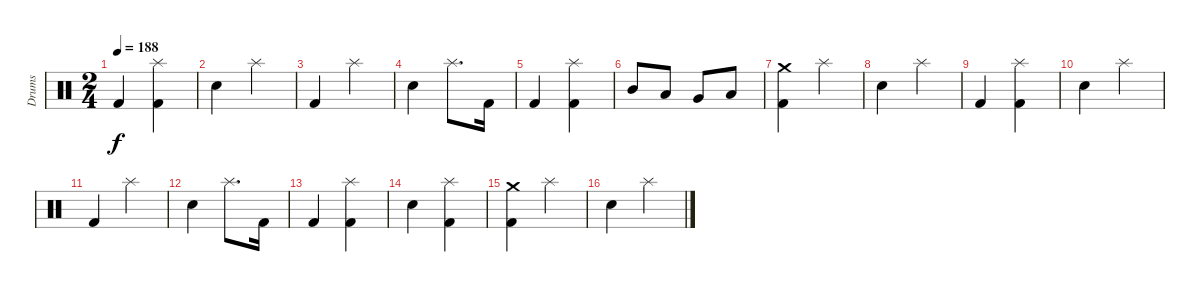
\track ("Drums" "Drums") {instrument percussion}
\staff {score}
\articulation defaults
\ts (2 4)
\tempo 188
\clef neutral
\ks c "Kick (hit) 2".4{dy f}
("Splash (hit)" "Kick (hit) 2").4 |
"Electric Snare (hit)".4 "Splash (hit)".4 |
"Kick (hit) 2".4 "Splash (hit)".4 |
"Electric Snare (hit)".4 "Splash (hit)".8{d} "Kick (hit) 2".16 |
"Kick (hit) 2".4 ("Splash (hit)" "Kick (hit) 2").4 |
"Mid Tom (hit)".8 "Low Tom (hit)".8 "Very Low Tom (hit)".8 "Low Floor Tom (hit)".8 |
("Crash medium (hit)" "Kick (hit) 2").4 "Splash (hit)".4 |
"Electric Snare (hit)".4 "Splash (hit)".4 |
"Kick (hit) 2".4 ("Splash (hit)" "Kick (hit) 2").4 |
"Electric Snare (hit)".4 "Splash (hit)".4 |
"Kick (hit) 2".4 "Splash (hit)".4 |
"Electric Snare (hit)".4 "Splash (hit)".8{d} "Kick (hit) 2".16 |
"Kick (hit) 2".4 ("Splash (hit)" "Kick (hit) 2").4 |
"Electric Snare (hit)".4 ("Splash (hit)" "Kick (hit) 2").4 |
("Crash medium (hit)" "Kick (hit) 2").4 "Splash (hit)".4 |
"Electric Snare (hit)".4 "Splash (hit)".4
